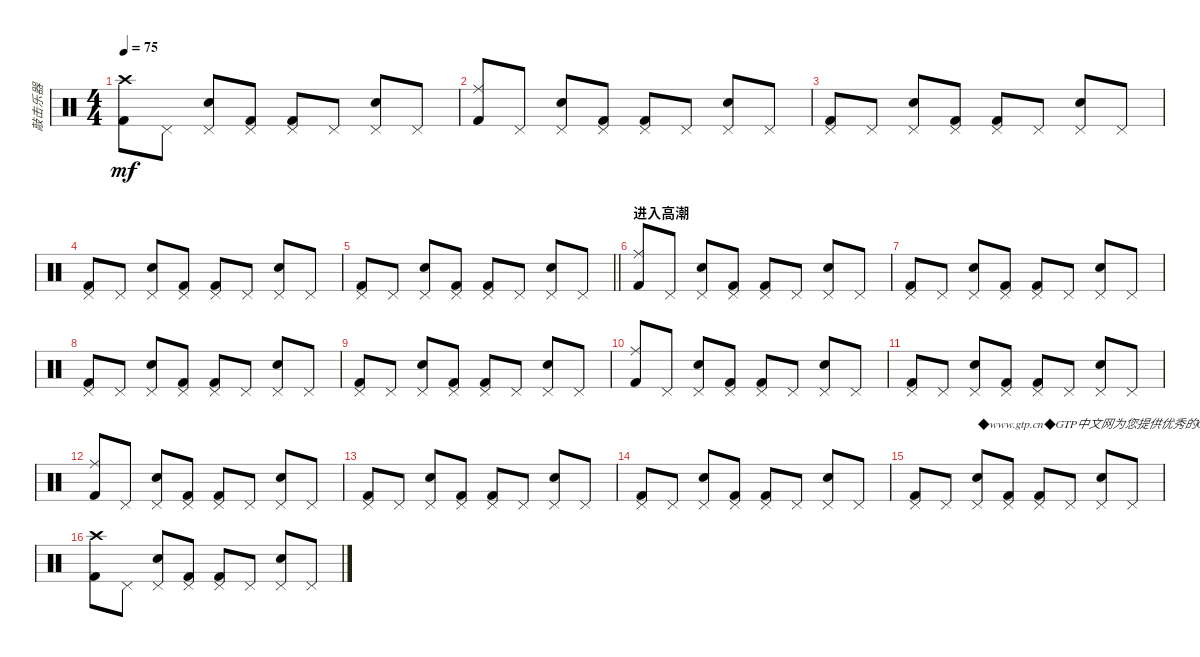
\track ("敲击乐器" "敲击乐器") {instrument percussion}
\staff {score}
\articulation defaults
\ts (4 4)
\tempo 75
\clef neutral
\ks c
("Crash high (hit)" "Kick (hit) 2").8{dy mf} "Pedal Hi-Hat (hit)".8 ("Pedal Hi-Hat (hit)" "Electric Snare (hit)").8 ("Pedal Hi-Hat (hit)" "Kick (hit) 2").8 ("Pedal Hi-Hat (hit)" "Kick (hit) 2").8 "Pedal Hi-Hat (hit)".8 ("Pedal Hi-Hat (hit)" "Electric Snare (hit)").8 "Pedal Hi-Hat (hit)".8 |
("Ride (middle)" "Kick (hit) 2").8 "Pedal Hi-Hat (hit)".8 ("Pedal Hi-Hat (hit)" "Electric Snare (hit)").8 ("Pedal Hi-Hat (hit)" "Kick (hit) 2").8 ("Pedal Hi-Hat (hit)" "Kick (hit) 2").8 "Pedal Hi-Hat (hit)".8 ("Pedal Hi-Hat (hit)" "Electric Snare (hit)").8 "Pedal Hi-Hat (hit)".8 |
("Pedal Hi-Hat (hit)" "Kick (hit) 2").8 "Pedal Hi-Hat (hit)".8 ("Pedal Hi-Hat (hit)" "Electric Snare (hit)").8 ("Pedal Hi-Hat (hit)" "Kick (hit) 2").8 ("Pedal Hi-Hat (hit)" "Kick (hit) 2").8 "Pedal Hi-Hat (hit)".8 ("Pedal Hi-Hat (hit)" "Electric Snare (hit)").8 "Pedal Hi-Hat (hit)".8 |
("Pedal Hi-Hat (hit)" "Kick (hit) 2").8 "Pedal Hi-Hat (hit)".8 ("Pedal Hi-Hat (hit)" "Electric Snare (hit)").8 ("Pedal Hi-Hat (hit)" "Kick (hit) 2").8 ("Pedal Hi-Hat (hit)" "Kick (hit) 2").8 "Pedal Hi-Hat (hit)".8 ("Pedal Hi-Hat (hit)" "Electric Snare (hit)").8 "Pedal Hi-Hat (hit)".8 |
\barLineRight lightlight
("Pedal Hi-Hat (hit)" "Kick (hit) 2").8 "Pedal Hi-Hat (hit)".8 ("Pedal Hi-Hat (hit)" "Electric Snare (hit)").8 ("Pedal Hi-Hat (hit)" "Kick (hit) 2").8 ("Pedal Hi-Hat (hit)" "Kick (hit) 2").8 "Pedal Hi-Hat (hit)".8 ("Pedal Hi-Hat (hit)" "Electric Snare (hit)").8 "Pedal Hi-Hat (hit)".8 |
\section ("" "进入高潮")
("Ride (middle)" "Kick (hit) 2").8 "Pedal Hi-Hat (hit)".8 ("Pedal Hi-Hat (hit)" "Electric Snare (hit)").8 ("Pedal Hi-Hat (hit)" "Kick (hit) 2").8 ("Pedal Hi-Hat (hit)" "Kick (hit) 2").8 "Pedal Hi-Hat (hit)".8 ("Pedal Hi-Hat (hit)" "Electric Snare (hit)").8 "Pedal Hi-Hat (hit)".8 |
("Pedal Hi-Hat (hit)" "Kick (hit) 2").8 "Pedal Hi-Hat (hit)".8 ("Pedal Hi-Hat (hit)" "Electric Snare (hit)").8 ("Pedal Hi-Hat (hit)" "Kick (hit) 2").8 ("Pedal Hi-Hat (hit)" "Kick (hit) 2").8 "Pedal Hi-Hat (hit)".8 ("Pedal Hi-Hat (hit)" "Electric Snare (hit)").8 "Pedal Hi-Hat (hit)".8 |
("Pedal Hi-Hat (hit)" "Kick (hit) 2").8 "Pedal Hi-Hat (hit)".8 ("Pedal Hi-Hat (hit)" "Electric Snare (hit)").8 ("Pedal Hi-Hat (hit)" "Kick (hit) 2").8 ("Pedal Hi-Hat (hit)" "Kick (hit) 2").8 "Pedal Hi-Hat (hit)".8 ("Pedal Hi-Hat (hit)" "Electric Snare (hit)").8 "Pedal Hi-Hat (hit)".8 |
("Pedal Hi-Hat (hit)" "Kick (hit) 2").8 "Pedal Hi-Hat (hit)".8 ("Pedal Hi-Hat (hit)" "Electric Snare (hit)").8 ("Pedal Hi-Hat (hit)" "Kick (hit) 2").8 ("Pedal Hi-Hat (hit)" "Kick (hit) 2").8 "Pedal Hi-Hat (hit)".8 ("Pedal Hi-Hat (hit)" "Electric Snare (hit)").8 "Pedal Hi-Hat (hit)".8 |
("Ride (middle)" "Kick (hit) 2").8 "Pedal Hi-Hat (hit)".8 ("Pedal Hi-Hat (hit)" "Electric Snare (hit)").8 ("Pedal Hi-Hat (hit)" "Kick (hit) 2").8 ("Pedal Hi-Hat (hit)" "Kick (hit) 2").8 "Pedal Hi-Hat (hit)".8 ("Pedal Hi-Hat (hit)" "Electric Snare (hit)").8 "Pedal Hi-Hat (hit)".8 |
("Pedal Hi-Hat (hit)" "Kick (hit) 2").8 "Pedal Hi-Hat (hit)".8 ("Pedal Hi-Hat (hit)" "Electric Snare (hit)").8 ("Pedal Hi-Hat (hit)" "Kick (hit) 2").8 ("Pedal Hi-Hat (hit)" "Kick (hit) 2").8 "Pedal Hi-Hat (hit)".8 ("Pedal Hi-Hat (hit)" "Electric Snare (hit)").8 "Pedal Hi-Hat (hit)".8 |
("Ride (middle)" "Kick (hit) 2").8 "Pedal Hi-Hat (hit)".8 ("Pedal Hi-Hat (hit)" "Electric Snare (hit)").8 ("Pedal Hi-Hat (hit)" "Kick (hit) 2").8 ("Pedal Hi-Hat (hit)" "Kick (hit) 2").8 "Pedal Hi-Hat (hit)".8 ("Pedal Hi-Hat (hit)" "Electric Snare (hit)").8 "Pedal Hi-Hat (hit)".8 |
("Pedal Hi-Hat (hit)" "Kick (hit) 2").8 "Pedal Hi-Hat (hit)".8 ("Pedal Hi-Hat (hit)" "Electric Snare (hit)").8 ("Pedal Hi-Hat (hit)" "Kick (hit) 2").8 ("Pedal Hi-Hat (hit)" "Kick (hit) 2").8 "Pedal Hi-Hat (hit)".8 ("Pedal Hi-Hat (hit)" "Electric Snare (hit)").8 "Pedal Hi-Hat (hit)".8 |
("Pedal Hi-Hat (hit)" "Kick (hit) 2").8 "Pedal Hi-Hat (hit)".8 ("Pedal Hi-Hat (hit)" "Electric Snare (hit)").8 ("Pedal Hi-Hat (hit)" "Kick (hit) 2").8 ("Pedal Hi-Hat (hit)" "Kick (hit) 2").8 "Pedal Hi-Hat (hit)".8 ("Pedal Hi-Hat (hit)" "Electric Snare (hit)").8 "Pedal Hi-Hat (hit)".8 |
("Pedal Hi-Hat (hit)" "Kick (hit) 2").8 "Pedal Hi-Hat (hit)".8 ("Pedal Hi-Hat (hit)" "Electric Snare (hit)").8{txt "◆www.gtp.cn◆GTP中文网为您提供优秀的GTP！"} ("Pedal Hi-Hat (hit)" "Kick (hit) 2").8 ("Pedal Hi-Hat (hit)" "Kick (hit) 2").8 "Pedal Hi-Hat (hit)".8 ("Pedal Hi-Hat (hit)" "Electric Snare (hit)").8 "Pedal Hi-Hat (hit)".8 |
("Crash high (hit)" "Kick (hit) 2").8 "Pedal Hi-Hat (hit)".8 ("Pedal Hi-Hat (hit)" "Electric Snare (hit)").8 ("Pedal Hi-Hat (hit)" "Kick (hit) 2").8 ("Pedal Hi-Hat (hit)" "Kick (hit) 2").8 "Pedal Hi-Hat (hit)".8 ("Pedal Hi-Hat (hit)" "Electric Snare (hit)").8 "Pedal Hi-Hat (hit)".8
